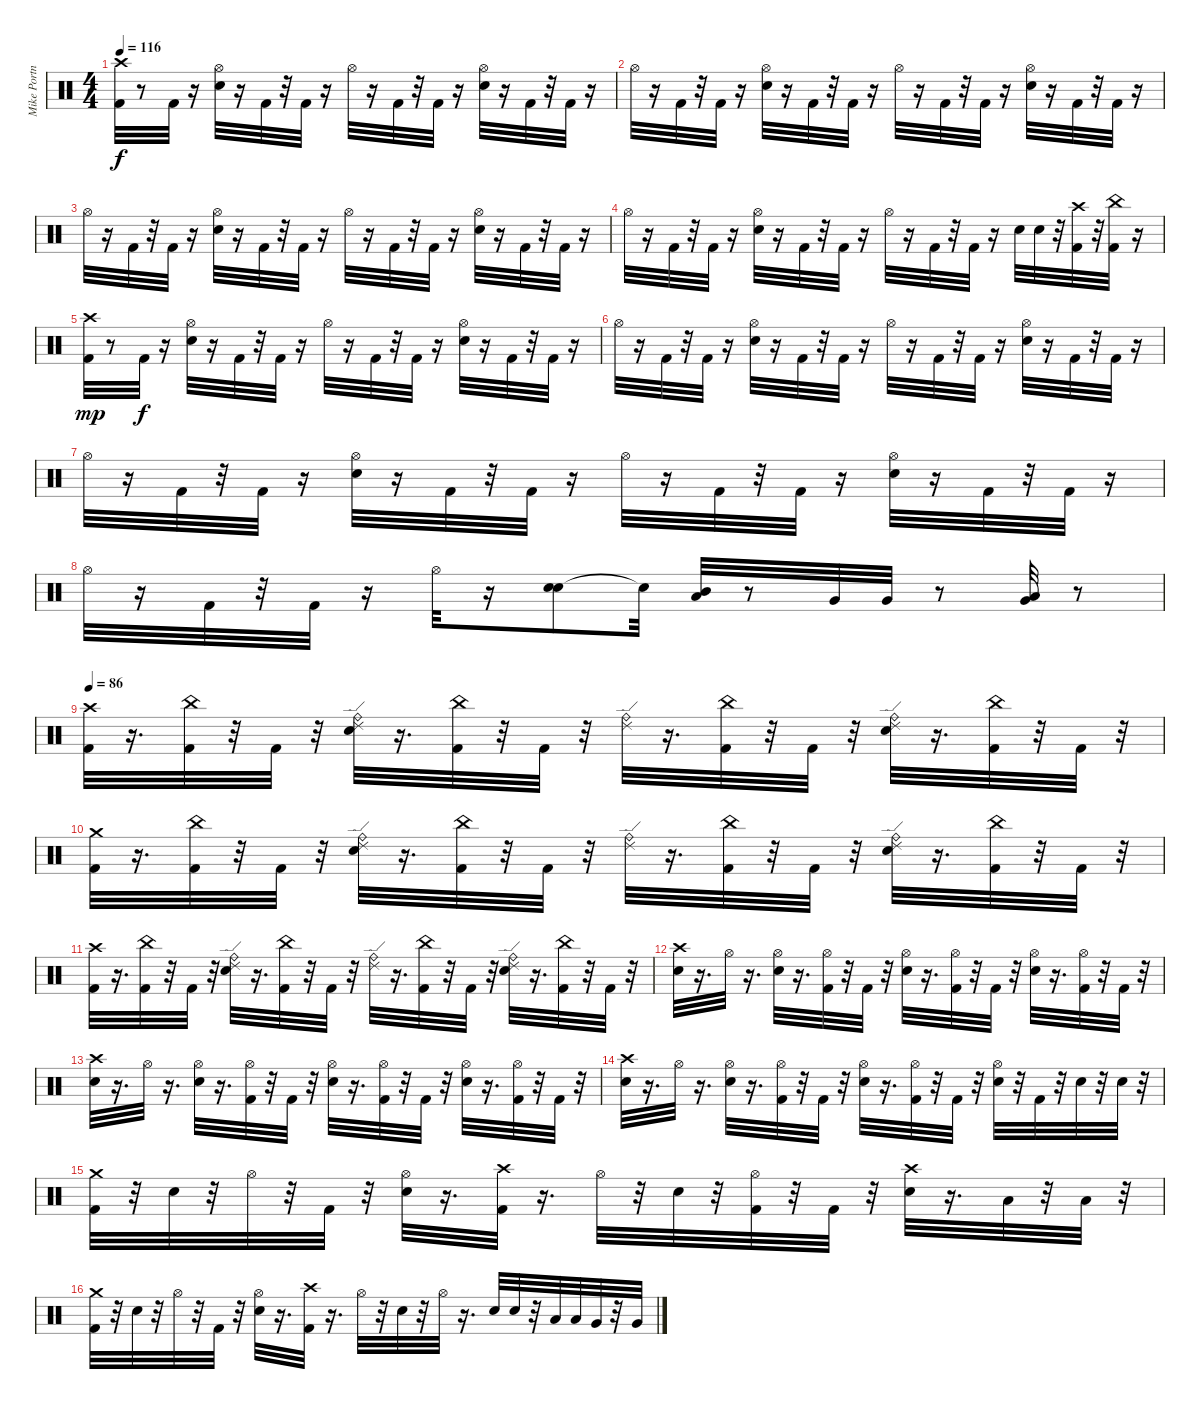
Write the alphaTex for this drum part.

\track ("Mike Portnoy" "Mike Portn") {instrument percussion}
\staff {score}
\articulation defaults
\ts (4 4)
\tempo 116
\clef neutral
\ks c
("Crash high (hit)" "Kick (hit) 2").32{dy f} r.8 "Kick (hit) 2".32 r.16 ("Hi-Hat (open)" "Snare (hit) 2").32 r.16 "Kick (hit) 2".32 r.32 "Kick (hit) 2".32 r.16 "Hi-Hat (open)".32 r.16 "Kick (hit) 2".32 r.32 "Kick (hit) 2".32 r.16 ("Hi-Hat (open)" "Snare (hit) 2").32 r.16 "Kick (hit) 2".32 r.32 "Kick (hit) 2".32 r.16 |
"Hi-Hat (open)".32 r.16 "Kick (hit) 2".32 r.32 "Kick (hit) 2".32 r.16 ("Hi-Hat (open)" "Snare (hit) 2").32 r.16 "Kick (hit) 2".32 r.32 "Kick (hit) 2".32 r.16 "Hi-Hat (open)".32 r.16 "Kick (hit) 2".32 r.32 "Kick (hit) 2".32 r.16 ("Hi-Hat (open)" "Snare (hit) 2").32 r.16 "Kick (hit) 2".32 r.32 "Kick (hit) 2".32 r.16 |
"Hi-Hat (open)".32 r.16 "Kick (hit) 2".32 r.32 "Kick (hit) 2".32 r.16 ("Hi-Hat (open)" "Snare (hit) 2").32 r.16 "Kick (hit) 2".32 r.32 "Kick (hit) 2".32 r.16 "Hi-Hat (open)".32 r.16 "Kick (hit) 2".32 r.32 "Kick (hit) 2".32 r.16 ("Hi-Hat (open)" "Snare (hit) 2").32 r.16 "Kick (hit) 2".32 r.32 "Kick (hit) 2".32 r.16 |
"Hi-Hat (open)".32 r.16 "Kick (hit) 2".32 r.32 "Kick (hit) 2".32 r.16 ("Hi-Hat (open)" "Snare (hit) 2").32 r.16 "Kick (hit) 2".32 r.32 "Kick (hit) 2".32 r.16 "Hi-Hat (open)".32 r.16 "Kick (hit) 2".32 r.32 "Kick (hit) 2".32 r.16 "Snare (hit) 2".32 "Snare (hit) 2".32 r.32 ("Kick (hit) 2" "Crash high (hit)").32 r.32 ("Kick (hit) 2" "China (hit)").32 r.16 |
("Crash high (hit)" "Kick (hit) 2").32{dy mp} r.8 "Kick (hit) 2".32{dy f} r.16 ("Hi-Hat (open)" "Snare (hit) 2").32 r.16 "Kick (hit) 2".32 r.32 "Kick (hit) 2".32 r.16 "Hi-Hat (open)".32 r.16 "Kick (hit) 2".32 r.32 "Kick (hit) 2".32 r.16 ("Hi-Hat (open)" "Snare (hit) 2").32 r.16 "Kick (hit) 2".32 r.32 "Kick (hit) 2".32 r.16 |
"Hi-Hat (open)".32 r.16 "Kick (hit) 2".32 r.32 "Kick (hit) 2".32 r.16 ("Hi-Hat (open)" "Snare (hit) 2").32 r.16 "Kick (hit) 2".32 r.32 "Kick (hit) 2".32 r.16 "Hi-Hat (open)".32 r.16 "Kick (hit) 2".32 r.32 "Kick (hit) 2".32 r.16 ("Hi-Hat (open)" "Snare (hit) 2").32 r.16 "Kick (hit) 2".32 r.32 "Kick (hit) 2".32 r.16 |
"Hi-Hat (open)".32 r.16 "Kick (hit) 2".32 r.32 "Kick (hit) 2".32 r.16 ("Hi-Hat (open)" "Snare (hit) 2").32 r.16 "Kick (hit) 2".32 r.32 "Kick (hit) 2".32 r.16 "Hi-Hat (open)".32 r.16 "Kick (hit) 2".32 r.32 "Kick (hit) 2".32 r.16 ("Snare (hit) 2" "Hi-Hat (open)").32 r.16 "Kick (hit) 2".32 r.32 "Kick (hit) 2".32 r.16 |
"Hi-Hat (open)".32 r.16 "Kick (hit) 2".32 r.32 "Kick (hit) 2".32 r.16 "Hi-Hat (open)".32 r.16 ("Snare (hit) 2" "Snare (hit) 2").8 "Snare (hit)"{t}.32 ("Mid Tom (hit)" "Low Tom (hit)").32 r.8 "Very Low Tom (hit)".32 "Very Low Tom (hit)".32 r.8 ("Low Floor Tom (hit)" "Very Low Tom (hit)").32 r.8 |
\tempo 86
("Crash high (hit)" "Kick (hit) 2").32 r.16{d} ("China (hit)" "Kick (hit) 2").32 r.32 "Kick (hit) 2".32 r.32 ("Ride (edge) 2" "Ride (bell)" "Snare (hit) 2").32 r.16{d} ("China (hit)" "Kick (hit) 2").32 r.32 "Kick (hit) 2".32 r.32 ("Ride (bell)" "Ride (edge) 2").32 r.16{d} ("China (hit)" "Kick (hit) 2").32 r.32 "Kick (hit) 2".32 r.32 ("Ride (bell)" "Ride (edge) 2" "Snare (hit) 2").32 r.16{d} ("China (hit)" "Kick (hit) 2").32 r.32 "Kick (hit) 2".32 r.32 |
("Crash medium (hit)" "Kick (hit) 2").32 r.16{d} ("Kick (hit) 2" "China (hit)").32 r.32 "Kick (hit) 2".32 r.32 ("Snare (hit) 2" "Ride (bell)" "Ride (edge) 2").32 r.16{d} ("Kick (hit) 2" "China (hit)").32 r.32 "Kick (hit) 2".32 r.32 ("Ride (bell)" "Ride (edge) 2").32 r.16{d} ("Kick (hit) 2" "China (hit)").32 r.32 "Kick (hit) 2".32 r.32 ("Snare (hit) 2" "Ride (bell)" "Ride (edge) 2").32 r.16{d} ("Kick (hit) 2" "China (hit)").32 r.32 "Kick (hit) 2".32 r.32 |
("Crash high (hit)" "Kick (hit) 2").32 r.16{d} ("China (hit)" "Kick (hit) 2").32 r.32 "Kick (hit) 2".32 r.32 ("Ride (edge) 2" "Ride (bell)" "Snare (hit) 2").32 r.16{d} ("China (hit)" "Kick (hit) 2").32 r.32 "Kick (hit) 2".32 r.32 ("Ride (bell)" "Ride (edge) 2").32 r.16{d} ("China (hit)" "Kick (hit) 2").32 r.32 "Kick (hit) 2".32 r.32 ("Ride (bell)" "Ride (edge) 2" "Snare (hit) 2").32 r.16{d} ("China (hit)" "Kick (hit) 2").32 r.32 "Kick (hit) 2".32 r.32 |
("Crash high (hit)" "Snare (hit) 2").32 r.16{d} "Hi-Hat (open)".32 r.16{d} ("Hi-Hat (open)" "Snare (hit) 2").32 r.16{d} ("Hi-Hat (open)" "Kick (hit) 2").32 r.32 "Kick (hit) 2".32 r.32 ("Hi-Hat (open)" "Snare (hit) 2").32 r.16{d} ("Hi-Hat (open)" "Kick (hit) 2").32 r.32 "Kick (hit) 2".32 r.32 ("Hi-Hat (open)" "Snare (hit) 2").32 r.16{d} ("Hi-Hat (open)" "Kick (hit) 2").32 r.32 "Kick (hit) 2".32 r.32 |
("Crash high (hit)" "Snare (hit) 2").32 r.16{d} "Hi-Hat (open)".32 r.16{d} ("Hi-Hat (open)" "Snare (hit) 2").32 r.16{d} ("Hi-Hat (open)" "Kick (hit) 2").32 r.32 "Kick (hit) 2".32 r.32 ("Hi-Hat (open)" "Snare (hit) 2").32 r.16{d} ("Hi-Hat (open)" "Kick (hit) 2").32 r.32 "Kick (hit) 2".32 r.32 ("Hi-Hat (open)" "Snare (hit) 2").32 r.16{d} ("Hi-Hat (open)" "Kick (hit) 2").32 r.32 "Kick (hit) 2".32 r.32 |
("Crash high (hit)" "Snare (hit) 2").32 r.16{d} "Hi-Hat (open)".32 r.16{d} ("Hi-Hat (open)" "Snare (hit) 2").32 r.16{d} ("Hi-Hat (open)" "Kick (hit) 2").32 r.32 "Kick (hit) 2".32 r.32 ("Hi-Hat (open)" "Snare (hit) 2").32 r.16{d} ("Hi-Hat (open)" "Kick (hit) 2").32 r.32 "Kick (hit) 2".32 r.32 ("Hi-Hat (open)" "Snare (hit) 2").32 r.32 "Kick (hit) 2".32 r.32 "Snare (hit) 2".32 r.32 "Snare (hit) 2".32 r.32 |
("Crash medium (hit)" "Kick (hit) 2").32 r.32 "Snare (hit) 2".32 r.32 "Hi-Hat (open)".32 r.32 "Kick (hit) 2".32 r.32 ("Hi-Hat (open)" "Snare (hit) 2").32 r.16{d} ("Kick (hit) 2" "Crash high (hit)").32 r.16{d} "Hi-Hat (open)".32 r.32 "Snare (hit) 2".32 r.32 ("Hi-Hat (open)" "Kick (hit) 2").32 r.32 "Kick (hit) 2".32 r.32 ("Crash high (hit)" "Snare (hit) 2").32 r.16{d} "Low Tom (hit)".32 r.32 "Low Tom (hit)".32 r.32 |
("Crash medium (hit)" "Kick (hit) 2").32 r.32 "Snare (hit) 2".32 r.32 "Hi-Hat (open)".32 r.32 "Kick (hit) 2".32 r.32 ("Hi-Hat (open)" "Snare (hit) 2").32 r.16{d} ("Kick (hit) 2" "Crash high (hit)").32 r.16{d} "Hi-Hat (open)".32 r.32 "Snare (hit) 2".32 r.32 "Hi-Hat (open)".32 r.16{d} "Snare (hit) 2".32 "Snare (hit) 2".32 r.32 "Low Tom (hit)".32 "Low Tom (hit)".32 "Very Low Tom (hit)".32 r.32 "Very Low Tom (hit)".32
